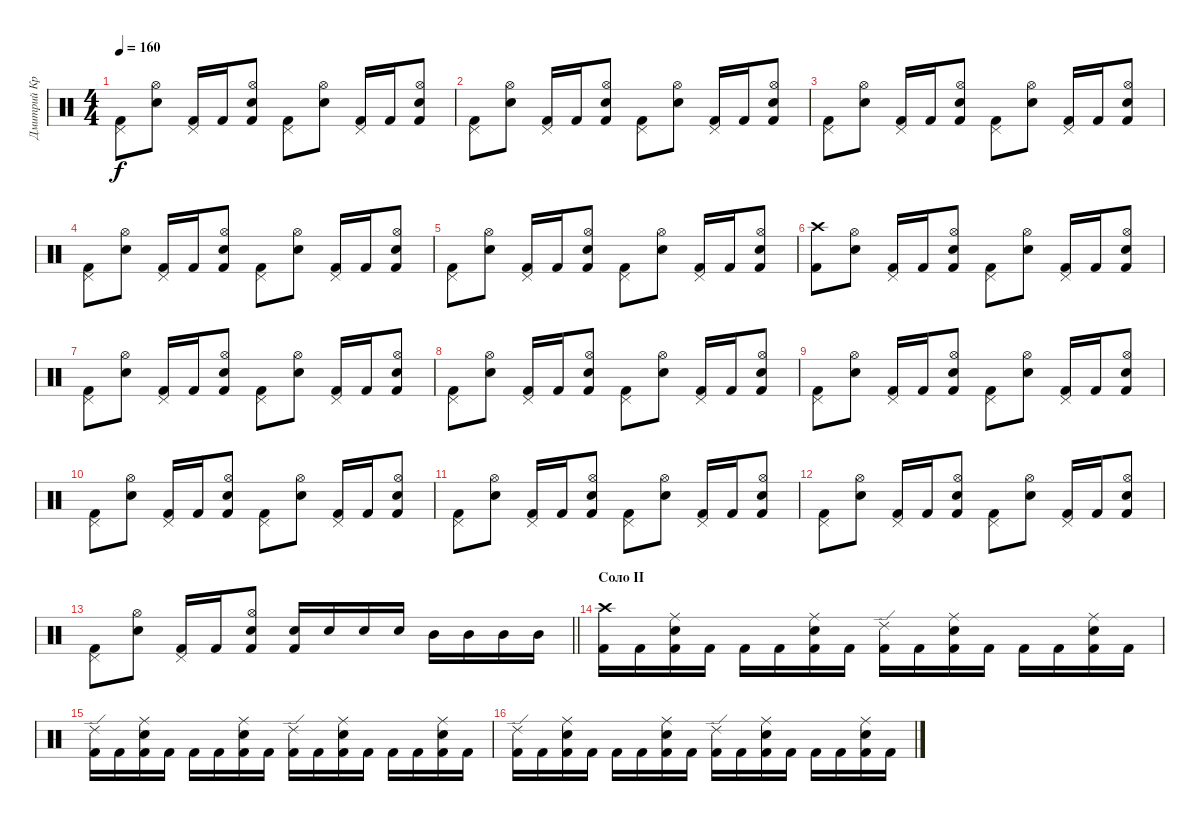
\track ("Дмитрий Кривенков" "Дмитрий Кр") {instrument percussion}
\staff {score}
\articulation defaults
\ts (4 4)
\tempo 160
\clef neutral
\ks c
("Pedal Hi-Hat (hit)" "Kick (hit) 2").8{dy f} ("Hi-Hat (open)" "Electric Snare (hit)").8 ("Pedal Hi-Hat (hit)" "Kick (hit) 2").16 "Kick (hit) 2".16 ("Hi-Hat (open)" "Electric Snare (hit)" "Kick (hit) 2").8 ("Pedal Hi-Hat (hit)" "Kick (hit) 2").8 ("Hi-Hat (open)" "Electric Snare (hit)").8 ("Pedal Hi-Hat (hit)" "Kick (hit) 2").16 "Kick (hit) 2".16 ("Hi-Hat (open)" "Electric Snare (hit)" "Kick (hit) 2").8 |
("Pedal Hi-Hat (hit)" "Kick (hit) 2").8 ("Hi-Hat (open)" "Electric Snare (hit)").8 ("Pedal Hi-Hat (hit)" "Kick (hit) 2").16 "Kick (hit) 2".16 ("Hi-Hat (open)" "Electric Snare (hit)" "Kick (hit) 2").8 ("Pedal Hi-Hat (hit)" "Kick (hit) 2").8 ("Hi-Hat (open)" "Electric Snare (hit)").8 ("Pedal Hi-Hat (hit)" "Kick (hit) 2").16 "Kick (hit) 2".16 ("Hi-Hat (open)" "Electric Snare (hit)" "Kick (hit) 2").8 |
("Pedal Hi-Hat (hit)" "Kick (hit) 2").8 ("Hi-Hat (open)" "Electric Snare (hit)").8 ("Pedal Hi-Hat (hit)" "Kick (hit) 2").16 "Kick (hit) 2".16 ("Hi-Hat (open)" "Electric Snare (hit)" "Kick (hit) 2").8 ("Pedal Hi-Hat (hit)" "Kick (hit) 2").8 ("Hi-Hat (open)" "Electric Snare (hit)").8 ("Pedal Hi-Hat (hit)" "Kick (hit) 2").16 "Kick (hit) 2".16 ("Hi-Hat (open)" "Electric Snare (hit)" "Kick (hit) 2").8 |
("Pedal Hi-Hat (hit)" "Kick (hit) 2").8 ("Hi-Hat (open)" "Electric Snare (hit)").8 ("Pedal Hi-Hat (hit)" "Kick (hit) 2").16 "Kick (hit) 2".16 ("Hi-Hat (open)" "Electric Snare (hit)" "Kick (hit) 2").8 ("Pedal Hi-Hat (hit)" "Kick (hit) 2").8 ("Hi-Hat (open)" "Electric Snare (hit)").8 ("Pedal Hi-Hat (hit)" "Kick (hit) 2").16 "Kick (hit) 2".16 ("Hi-Hat (open)" "Electric Snare (hit)" "Kick (hit) 2").8 |
("Pedal Hi-Hat (hit)" "Kick (hit) 2").8 ("Hi-Hat (open)" "Electric Snare (hit)").8 ("Pedal Hi-Hat (hit)" "Kick (hit) 2").16 "Kick (hit) 2".16 ("Hi-Hat (open)" "Electric Snare (hit)" "Kick (hit) 2").8 ("Pedal Hi-Hat (hit)" "Kick (hit) 2").8 ("Hi-Hat (open)" "Electric Snare (hit)").8 ("Pedal Hi-Hat (hit)" "Kick (hit) 2").16 "Kick (hit) 2".16 ("Hi-Hat (open)" "Electric Snare (hit)" "Kick (hit) 2").8 |
("Crash high (hit)" "Kick (hit) 2").8 ("Hi-Hat (open)" "Electric Snare (hit)").8 ("Pedal Hi-Hat (hit)" "Kick (hit) 2").16 "Kick (hit) 2".16 ("Hi-Hat (open)" "Electric Snare (hit)" "Kick (hit) 2").8 ("Pedal Hi-Hat (hit)" "Kick (hit) 2").8 ("Hi-Hat (open)" "Electric Snare (hit)").8 ("Pedal Hi-Hat (hit)" "Kick (hit) 2").16 "Kick (hit) 2".16 ("Hi-Hat (open)" "Electric Snare (hit)" "Kick (hit) 2").8 |
("Pedal Hi-Hat (hit)" "Kick (hit) 2").8 ("Hi-Hat (open)" "Electric Snare (hit)").8 ("Pedal Hi-Hat (hit)" "Kick (hit) 2").16 "Kick (hit) 2".16 ("Hi-Hat (open)" "Electric Snare (hit)" "Kick (hit) 2").8 ("Pedal Hi-Hat (hit)" "Kick (hit) 2").8 ("Hi-Hat (open)" "Electric Snare (hit)").8 ("Pedal Hi-Hat (hit)" "Kick (hit) 2").16 "Kick (hit) 2".16 ("Hi-Hat (open)" "Electric Snare (hit)" "Kick (hit) 2").8 |
("Pedal Hi-Hat (hit)" "Kick (hit) 2").8 ("Hi-Hat (open)" "Electric Snare (hit)").8 ("Pedal Hi-Hat (hit)" "Kick (hit) 2").16 "Kick (hit) 2".16 ("Hi-Hat (open)" "Electric Snare (hit)" "Kick (hit) 2").8 ("Pedal Hi-Hat (hit)" "Kick (hit) 2").8 ("Hi-Hat (open)" "Electric Snare (hit)").8 ("Pedal Hi-Hat (hit)" "Kick (hit) 2").16 "Kick (hit) 2".16 ("Hi-Hat (open)" "Electric Snare (hit)" "Kick (hit) 2").8 |
("Pedal Hi-Hat (hit)" "Kick (hit) 2").8 ("Hi-Hat (open)" "Electric Snare (hit)").8 ("Pedal Hi-Hat (hit)" "Kick (hit) 2").16 "Kick (hit) 2".16 ("Hi-Hat (open)" "Electric Snare (hit)" "Kick (hit) 2").8 ("Pedal Hi-Hat (hit)" "Kick (hit) 2").8 ("Hi-Hat (open)" "Electric Snare (hit)").8 ("Pedal Hi-Hat (hit)" "Kick (hit) 2").16 "Kick (hit) 2".16 ("Hi-Hat (open)" "Electric Snare (hit)" "Kick (hit) 2").8 |
("Pedal Hi-Hat (hit)" "Kick (hit) 2").8 ("Hi-Hat (open)" "Electric Snare (hit)").8 ("Pedal Hi-Hat (hit)" "Kick (hit) 2").16 "Kick (hit) 2".16 ("Hi-Hat (open)" "Electric Snare (hit)" "Kick (hit) 2").8 ("Pedal Hi-Hat (hit)" "Kick (hit) 2").8 ("Hi-Hat (open)" "Electric Snare (hit)").8 ("Pedal Hi-Hat (hit)" "Kick (hit) 2").16 "Kick (hit) 2".16 ("Hi-Hat (open)" "Electric Snare (hit)" "Kick (hit) 2").8 |
("Pedal Hi-Hat (hit)" "Kick (hit) 2").8 ("Hi-Hat (open)" "Electric Snare (hit)").8 ("Pedal Hi-Hat (hit)" "Kick (hit) 2").16 "Kick (hit) 2".16 ("Hi-Hat (open)" "Electric Snare (hit)" "Kick (hit) 2").8 ("Pedal Hi-Hat (hit)" "Kick (hit) 2").8 ("Hi-Hat (open)" "Electric Snare (hit)").8 ("Pedal Hi-Hat (hit)" "Kick (hit) 2").16 "Kick (hit) 2".16 ("Hi-Hat (open)" "Electric Snare (hit)" "Kick (hit) 2").8 |
("Pedal Hi-Hat (hit)" "Kick (hit) 2").8 ("Hi-Hat (open)" "Electric Snare (hit)").8 ("Pedal Hi-Hat (hit)" "Kick (hit) 2").16 "Kick (hit) 2".16 ("Hi-Hat (open)" "Electric Snare (hit)" "Kick (hit) 2").8 ("Pedal Hi-Hat (hit)" "Kick (hit) 2").8 ("Hi-Hat (open)" "Electric Snare (hit)").8 ("Pedal Hi-Hat (hit)" "Kick (hit) 2").16 "Kick (hit) 2".16 ("Hi-Hat (open)" "Electric Snare (hit)" "Kick (hit) 2").8 |
\barLineRight lightlight
("Pedal Hi-Hat (hit)" "Kick (hit) 2").8 ("Hi-Hat (open)" "Electric Snare (hit)").8 ("Pedal Hi-Hat (hit)" "Kick (hit) 2").16 "Kick (hit) 2".16 ("Hi-Hat (open)" "Electric Snare (hit)" "Kick (hit) 2").8 ("Electric Snare (hit)" "Kick (hit) 2").16 "Electric Snare (hit)".16 "Electric Snare (hit)".16 "Electric Snare (hit)".16 "Mid Tom (hit)".16 "Mid Tom (hit)".16 "Mid Tom (hit)".16 "Mid Tom (hit)".16 |
\section ("" "Соло II")
("Crash high (hit)" "Kick (hit) 2").16 "Kick (hit) 2".16 ("Ride (middle)" "Electric Snare (hit)" "Kick (hit) 2").16 "Kick (hit) 2".16 "Kick (hit) 2".16 "Kick (hit) 2".16 ("Ride (middle)" "Electric Snare (hit)" "Kick (hit) 2").16 "Kick (hit) 2".16 ("Ride (edge) 2" "Kick (hit) 2").16 "Kick (hit) 2".16 ("Ride (middle)" "Electric Snare (hit)" "Kick (hit) 2").16 "Kick (hit) 2".16 "Kick (hit) 2".16 "Kick (hit) 2".16 ("Ride (middle)" "Electric Snare (hit)" "Kick (hit) 2").16 "Kick (hit) 2".16 |
("Ride (edge) 2" "Kick (hit) 2").16 "Kick (hit) 2".16 ("Ride (middle)" "Electric Snare (hit)" "Kick (hit) 2").16 "Kick (hit) 2".16 "Kick (hit) 2".16 "Kick (hit) 2".16 ("Ride (middle)" "Electric Snare (hit)" "Kick (hit) 2").16 "Kick (hit) 2".16 ("Ride (edge) 2" "Kick (hit) 2").16 "Kick (hit) 2".16 ("Ride (middle)" "Electric Snare (hit)" "Kick (hit) 2").16 "Kick (hit) 2".16 "Kick (hit) 2".16 "Kick (hit) 2".16 ("Ride (middle)" "Electric Snare (hit)" "Kick (hit) 2").16 "Kick (hit) 2".16 |
("Ride (edge) 2" "Kick (hit) 2").16 "Kick (hit) 2".16 ("Ride (middle)" "Electric Snare (hit)" "Kick (hit) 2").16 "Kick (hit) 2".16 "Kick (hit) 2".16 "Kick (hit) 2".16 ("Ride (middle)" "Electric Snare (hit)" "Kick (hit) 2").16 "Kick (hit) 2".16 ("Ride (edge) 2" "Kick (hit) 2").16 "Kick (hit) 2".16 ("Ride (middle)" "Electric Snare (hit)" "Kick (hit) 2").16 "Kick (hit) 2".16 "Kick (hit) 2".16 "Kick (hit) 2".16 ("Ride (middle)" "Electric Snare (hit)" "Kick (hit) 2").16 "Kick (hit) 2".16
